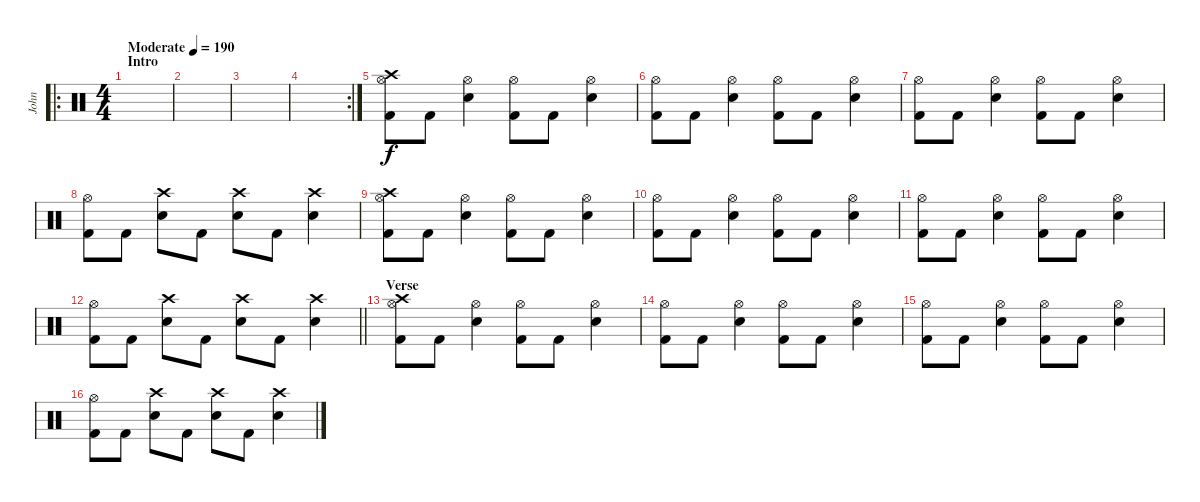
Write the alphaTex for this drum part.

\track ("John" "John") {instrument percussion}
\staff {score}
\articulation defaults
\ro
\ts (4 4)
\section ("" "Intro")
\tempo (190 "Moderate")
\clef neutral
\ks c
|
|
|
\rc 2
|
("Crash high (hit)" "Hi-Hat (open)" "Kick (hit) 2").8 "Kick (hit) 2".8 ("Hi-Hat (open)" "Electric Snare (hit)").4 ("Hi-Hat (open)" "Kick (hit) 2").8 "Kick (hit) 2".8 ("Hi-Hat (open)" "Electric Snare (hit)").4 |
("Hi-Hat (open)" "Kick (hit) 2").8 "Kick (hit) 2".8 ("Hi-Hat (open)" "Electric Snare (hit)").4 ("Hi-Hat (open)" "Kick (hit) 2").8 "Kick (hit) 2".8 ("Hi-Hat (open)" "Electric Snare (hit)").4 |
("Hi-Hat (open)" "Kick (hit) 2").8 "Kick (hit) 2".8 ("Hi-Hat (open)" "Electric Snare (hit)").4 ("Hi-Hat (open)" "Kick (hit) 2").8 "Kick (hit) 2".8 ("Hi-Hat (open)" "Electric Snare (hit)").4 |
("Hi-Hat (open)" "Kick (hit) 2").8 "Kick (hit) 2".8 ("Crash high (hit)" "Electric Snare (hit)").8 "Kick (hit) 2".8 ("Crash high (hit)" "Electric Snare (hit)").8 "Kick (hit) 2".8 ("Crash high (hit)" "Electric Snare (hit)").4 |
("Crash high (hit)" "Hi-Hat (open)" "Kick (hit) 2").8 "Kick (hit) 2".8 ("Hi-Hat (open)" "Electric Snare (hit)").4 ("Hi-Hat (open)" "Kick (hit) 2").8 "Kick (hit) 2".8 ("Hi-Hat (open)" "Electric Snare (hit)").4 |
("Hi-Hat (open)" "Kick (hit) 2").8 "Kick (hit) 2".8 ("Hi-Hat (open)" "Electric Snare (hit)").4 ("Hi-Hat (open)" "Kick (hit) 2").8 "Kick (hit) 2".8 ("Hi-Hat (open)" "Electric Snare (hit)").4 |
("Hi-Hat (open)" "Kick (hit) 2").8 "Kick (hit) 2".8 ("Hi-Hat (open)" "Electric Snare (hit)").4 ("Hi-Hat (open)" "Kick (hit) 2").8 "Kick (hit) 2".8 ("Hi-Hat (open)" "Electric Snare (hit)").4 |
\barLineRight lightlight
("Hi-Hat (open)" "Kick (hit) 2").8 "Kick (hit) 2".8 ("Crash high (hit)" "Electric Snare (hit)").8 "Kick (hit) 2".8 ("Crash high (hit)" "Electric Snare (hit)").8 "Kick (hit) 2".8 ("Crash high (hit)" "Electric Snare (hit)").4 |
\section ("" "Verse")
("Crash high (hit)" "Hi-Hat (open)" "Kick (hit) 2").8 "Kick (hit) 2".8 ("Hi-Hat (open)" "Electric Snare (hit)").4 ("Hi-Hat (open)" "Kick (hit) 2").8 "Kick (hit) 2".8 ("Hi-Hat (open)" "Electric Snare (hit)").4 |
("Hi-Hat (open)" "Kick (hit) 2").8 "Kick (hit) 2".8 ("Hi-Hat (open)" "Electric Snare (hit)").4 ("Hi-Hat (open)" "Kick (hit) 2").8 "Kick (hit) 2".8 ("Hi-Hat (open)" "Electric Snare (hit)").4 |
("Hi-Hat (open)" "Kick (hit) 2").8 "Kick (hit) 2".8 ("Hi-Hat (open)" "Electric Snare (hit)").4 ("Hi-Hat (open)" "Kick (hit) 2").8 "Kick (hit) 2".8 ("Hi-Hat (open)" "Electric Snare (hit)").4 |
("Hi-Hat (open)" "Kick (hit) 2").8 "Kick (hit) 2".8 ("Crash high (hit)" "Electric Snare (hit)").8 "Kick (hit) 2".8 ("Crash high (hit)" "Electric Snare (hit)").8 "Kick (hit) 2".8 ("Crash high (hit)" "Electric Snare (hit)").4
